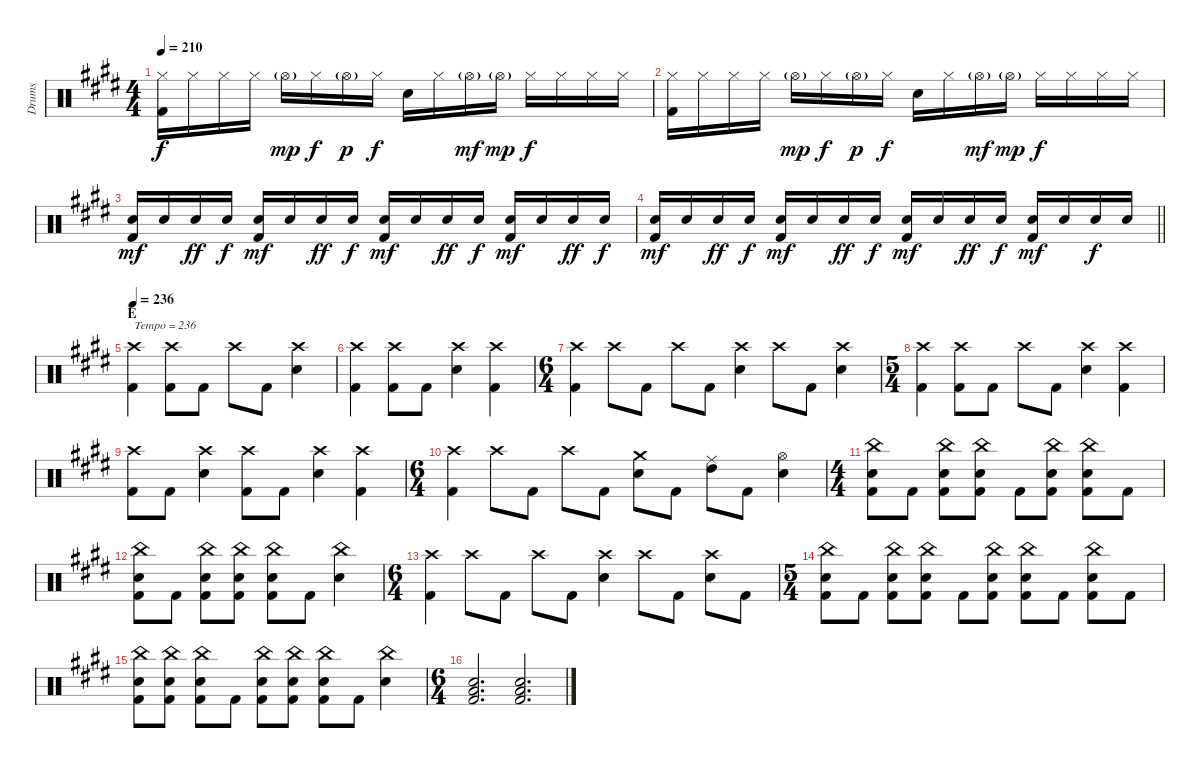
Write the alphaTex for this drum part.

\track ("Drums" "Drums") {instrument percussion}
\staff {score}
\articulation defaults
\ts (4 4)
\tempo 210
\clef neutral
\ks c#minor
("Hi-Hat (closed)" "Kick (hit) 2").16{dy f} "Hi-Hat (closed)".16 "Hi-Hat (closed)".16 "Hi-Hat (closed)".16 "Hi-Hat (open)"{g}.16{dy mp} "Hi-Hat (closed)".16{dy f} "Hi-Hat (open)"{g}.16{dy p} "Hi-Hat (closed)".16{dy f} "Snare (hit) 2".16 "Hi-Hat (closed)".16 "Hi-Hat (open)"{g}.16{dy mf} "Hi-Hat (open)"{g}.16{dy mp} "Hi-Hat (closed)".16{dy f} "Hi-Hat (closed)".16 "Hi-Hat (closed)".16 "Hi-Hat (closed)".16 |
("Hi-Hat (closed)" "Kick (hit) 2").16 "Hi-Hat (closed)".16 "Hi-Hat (closed)".16 "Hi-Hat (closed)".16 "Hi-Hat (open)"{g}.16{dy mp} "Hi-Hat (closed)".16{dy f} "Hi-Hat (open)"{g}.16{dy p} "Hi-Hat (closed)".16{dy f} "Snare (hit) 2".16 "Hi-Hat (closed)".16 "Hi-Hat (open)"{g}.16{dy mf} "Hi-Hat (open)"{g}.16{dy mp} "Hi-Hat (closed)".16{dy f} "Hi-Hat (closed)".16 "Hi-Hat (closed)".16 "Hi-Hat (closed)".16 |
("Snare (hit) 2" "Kick (hit) 2").16{dy mf} "Snare (hit) 2".16 "Snare (hit) 2".16{dy ff} "Snare (hit) 2".16{dy f} ("Snare (hit) 2" "Kick (hit) 2").16{dy mf} "Snare (hit) 2".16 "Snare (hit) 2".16{dy ff} "Snare (hit) 2".16{dy f} ("Snare (hit) 2" "Kick (hit) 2").16{dy mf} "Snare (hit) 2".16 "Snare (hit) 2".16{dy ff} "Snare (hit) 2".16{dy f} ("Snare (hit) 2" "Kick (hit) 2").16{dy mf} "Snare (hit) 2".16 "Snare (hit) 2".16{dy ff} "Snare (hit) 2".16{dy f} |
\barLineRight lightlight
("Snare (hit) 2" "Kick (hit) 2").16{dy mf} "Snare (hit) 2".16 "Snare (hit) 2".16{dy ff} "Snare (hit) 2".16{dy f} ("Snare (hit) 2" "Kick (hit) 2").16{dy mf} "Snare (hit) 2".16 "Snare (hit) 2".16{dy ff} "Snare (hit) 2".16{dy f} ("Snare (hit) 2" "Kick (hit) 2").16{dy mf} "Snare (hit) 2".16 "Snare (hit) 2".16{dy ff} "Snare (hit) 2".16{dy f} ("Snare (hit) 2" "Kick (hit) 2").16{dy mf} "Snare (hit) 2".16 "Snare (hit) 2".16{dy f} "Snare (hit) 2".16 |
\section ("" "E")
\tempo 236
("Crash high (hit)" "Kick (hit) 2").4{txt "Tempo = 236"} ("Crash high (hit)" "Kick (hit) 2").8 "Kick (hit) 2".8 "Crash high (hit)".8 "Kick (hit) 2".8 ("Crash high (hit)" "Snare (hit) 2").4 |
("Crash high (hit)" "Kick (hit) 2").4 ("Crash high (hit)" "Kick (hit) 2").8 "Kick (hit) 2".8 ("Crash high (hit)" "Snare (hit) 2").4 ("Crash high (hit)" "Kick (hit) 2").4 |
\ts (6 4)
("Crash high (hit)" "Kick (hit) 2").4 "Crash high (hit)".8 "Kick (hit) 2".8 "Crash high (hit)".8 "Kick (hit) 2".8 ("Crash high (hit)" "Snare (hit) 2").4 "Crash high (hit)".8 "Kick (hit) 2".8 ("Crash high (hit)" "Snare (hit) 2").4 |
\ts (5 4)
("Crash high (hit)" "Kick (hit) 2").4 ("Crash high (hit)" "Kick (hit) 2").8 "Kick (hit) 2".8 "Crash high (hit)".8 "Kick (hit) 2".8 ("Crash high (hit)" "Snare (hit) 2").4 ("Crash high (hit)" "Kick (hit) 2").4 |
("Crash high (hit)" "Kick (hit) 2").8 "Kick (hit) 2".8 ("Crash high (hit)" "Snare (hit) 2").4 ("Crash high (hit)" "Kick (hit) 2").8 "Kick (hit) 2".8 ("Crash high (hit)" "Snare (hit) 2").4 ("Crash high (hit)" "Kick (hit) 2").4 |
\ts (6 4)
("Crash high (hit)" "Kick (hit) 2").4 "Crash high (hit)".8 "Kick (hit) 2".8 "Crash high (hit)".8 "Kick (hit) 2".8 ("Crash medium (hit)" "Snare (hit) 2").8 "Kick (hit) 2".8 ("Ride (middle)" "High Tom (hit)").8 "Kick (hit) 2".8 ("Hi-Hat (open)" "Snare (hit) 2").4 |
\ts (4 4)
("China (hit)" "Snare (hit) 2" "Kick (hit) 2").8 "Kick (hit) 2".8 ("China (hit)" "Snare (hit) 2" "Kick (hit) 2").8 ("China (hit)" "Snare (hit) 2" "Kick (hit) 2").8 "Kick (hit) 2".8 ("China (hit)" "Snare (hit) 2" "Kick (hit) 2").8 ("China (hit)" "Snare (hit) 2" "Kick (hit) 2").8 "Kick (hit) 2".8 |
("China (hit)" "Snare (hit) 2" "Kick (hit) 2").8 "Kick (hit) 2".8 ("China (hit)" "Snare (hit) 2" "Kick (hit) 2").8 ("China (hit)" "Snare (hit) 2" "Kick (hit) 2").8 ("China (hit)" "Snare (hit) 2" "Kick (hit) 2").8 "Kick (hit) 2".8 ("China (hit)" "Snare (hit) 2").4 |
\ts (6 4)
("Crash high (hit)" "Kick (hit) 2").4 "Crash high (hit)".8 "Kick (hit) 2".8 "Crash high (hit)".8 "Kick (hit) 2".8 ("Crash high (hit)" "Snare (hit) 2").4 "Crash high (hit)".8 "Kick (hit) 2".8 ("Crash high (hit)" "Snare (hit) 2").8 "Kick (hit) 2".8 |
\ts (5 4)
("China (hit)" "Snare (hit) 2" "Kick (hit) 2").8 "Kick (hit) 2".8 ("China (hit)" "Snare (hit) 2" "Kick (hit) 2").8 ("China (hit)" "Snare (hit) 2" "Kick (hit) 2").8 "Kick (hit) 2".8 ("China (hit)" "Snare (hit) 2" "Kick (hit) 2").8 ("China (hit)" "Snare (hit) 2" "Kick (hit) 2").8 "Kick (hit) 2".8 ("China (hit)" "Snare (hit) 2" "Kick (hit) 2").8 "Kick (hit) 2".8 |
("China (hit)" "Snare (hit) 2" "Kick (hit) 2").8 ("China (hit)" "Snare (hit) 2" "Kick (hit) 2").8 ("China (hit)" "Snare (hit) 2" "Kick (hit) 2").8 "Kick (hit) 2".8 ("China (hit)" "Snare (hit) 2" "Kick (hit) 2").8 ("China (hit)" "Snare (hit) 2" "Kick (hit) 2").8 ("China (hit)" "Snare (hit) 2" "Kick (hit) 2").8 "Kick (hit) 2".8 ("China (hit)" "Snare (hit) 2").4 |
\ts (6 4)
("Low Tom (hit)" "Snare (hit) 2" "Kick (hit) 2").2{d} ("Low Tom (hit)" "Snare (hit) 2" "Kick (hit) 2").2{d}
